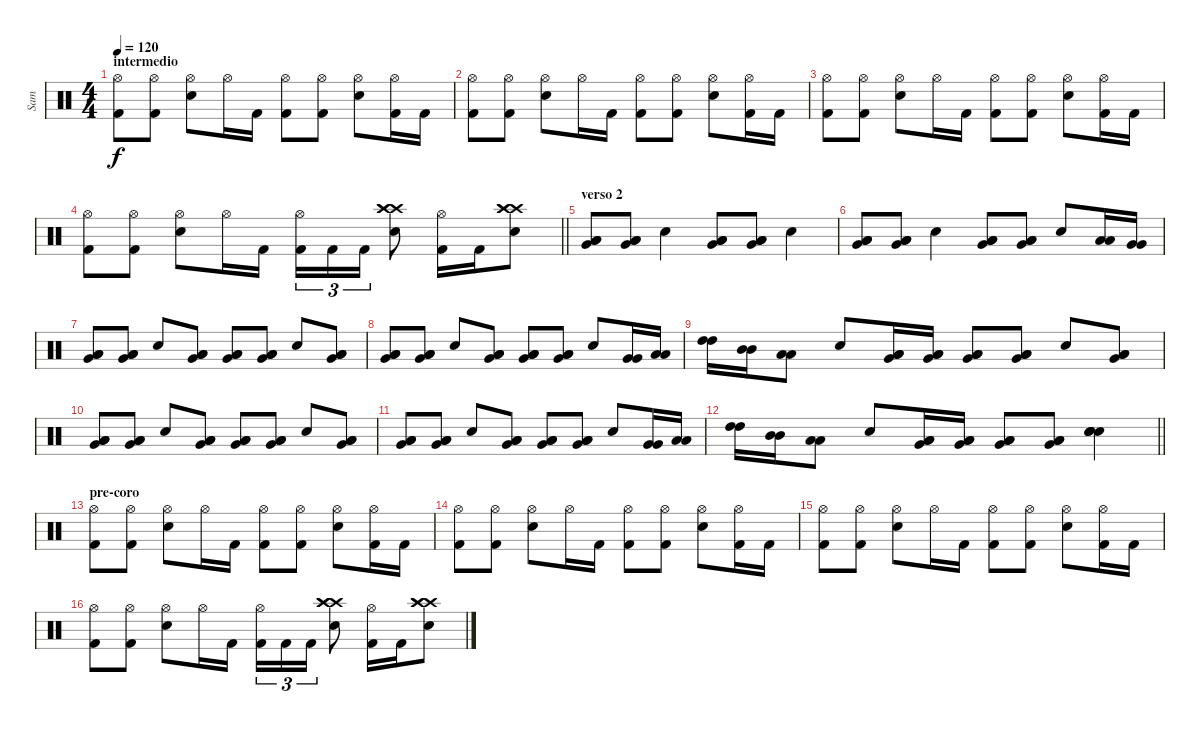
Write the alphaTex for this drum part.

\track ("Sam" "Sam") {instrument percussion}
\staff {score}
\articulation defaults
\ts (4 4)
\section ("" "intermedio")
\tempo 120
\clef neutral
\ks c
("Hi-Hat (open)" "Kick (hit) 2").8{dy f} ("Hi-Hat (open)" "Kick (hit) 2").8 ("Hi-Hat (open)" "Electric Snare (hit)").8 "Hi-Hat (open)".16 "Kick (hit) 2".16 ("Hi-Hat (open)" "Kick (hit) 2").8 ("Hi-Hat (open)" "Kick (hit) 2").8 ("Hi-Hat (open)" "Electric Snare (hit)").8 ("Hi-Hat (open)" "Kick (hit) 2").16 "Kick (hit) 2".16 |
("Hi-Hat (open)" "Kick (hit) 2").8 ("Hi-Hat (open)" "Kick (hit) 2").8 ("Hi-Hat (open)" "Electric Snare (hit)").8 "Hi-Hat (open)".16 "Kick (hit) 2".16 ("Hi-Hat (open)" "Kick (hit) 2").8 ("Hi-Hat (open)" "Kick (hit) 2").8 ("Hi-Hat (open)" "Electric Snare (hit)").8 ("Hi-Hat (open)" "Kick (hit) 2").16 "Kick (hit) 2".16 |
("Hi-Hat (open)" "Kick (hit) 2").8 ("Hi-Hat (open)" "Kick (hit) 2").8 ("Hi-Hat (open)" "Electric Snare (hit)").8 "Hi-Hat (open)".16 "Kick (hit) 2".16 ("Hi-Hat (open)" "Kick (hit) 2").8 ("Hi-Hat (open)" "Kick (hit) 2").8 ("Hi-Hat (open)" "Electric Snare (hit)").8 ("Hi-Hat (open)" "Kick (hit) 2").16 "Kick (hit) 2".16 |
\barLineRight lightlight
("Hi-Hat (open)" "Kick (hit) 2").8 ("Hi-Hat (open)" "Kick (hit) 2").8 ("Hi-Hat (open)" "Electric Snare (hit)").8 "Hi-Hat (open)".16 "Kick (hit) 2".16 ("Hi-Hat (open)" "Kick (hit) 2").16{tu (3 2)} "Kick (hit) 2".16{tu (3 2)} "Kick (hit) 2".16{tu (3 2)} ("Crash high (hit)" "Crash high (hit)" "Crash high (hit)" "Electric Snare (hit)").8 ("Hi-Hat (open)" "Kick (hit) 2").16 "Kick (hit) 2".16 ("Crash high (hit)" "Crash high (hit)" "Crash high (hit)" "Electric Snare (hit)").8 |
\section ("" "verso 2")
("Very Low Tom (hit)" "Low Tom (hit)" "Low Tom (hit)").8 ("Very Low Tom (hit)" "Low Tom (hit)" "Low Tom (hit)").8 "Electric Snare (hit)".4 ("Very Low Tom (hit)" "Low Tom (hit)" "Low Tom (hit)").8 ("Very Low Tom (hit)" "Low Tom (hit)" "Low Tom (hit)").8 "Electric Snare (hit)".4 |
("Very Low Tom (hit)" "Low Tom (hit)" "Low Tom (hit)").8 ("Very Low Tom (hit)" "Low Tom (hit)" "Low Tom (hit)").8 "Electric Snare (hit)".4 ("Very Low Tom (hit)" "Low Tom (hit)" "Low Tom (hit)").8 ("Very Low Tom (hit)" "Low Tom (hit)" "Low Tom (hit)").8 "Electric Snare (hit)".8 ("Low Tom (hit)" "Low Tom (hit)").16 ("Very Low Tom (hit)" "Very Low Tom (hit)").16 |
("Very Low Tom (hit)" "Low Tom (hit)" "Low Tom (hit)").8 ("Very Low Tom (hit)" "Low Tom (hit)" "Low Tom (hit)").8 "Electric Snare (hit)".8 ("Very Low Tom (hit)" "Low Tom (hit)" "Low Tom (hit)").8 ("Very Low Tom (hit)" "Low Tom (hit)" "Low Tom (hit)").8 ("Very Low Tom (hit)" "Low Tom (hit)" "Low Tom (hit)").8 "Electric Snare (hit)".8 ("Very Low Tom (hit)" "Low Tom (hit)" "Low Tom (hit)").8 |
("Very Low Tom (hit)" "Low Tom (hit)" "Low Tom (hit)").8 ("Very Low Tom (hit)" "Low Tom (hit)" "Low Tom (hit)").8 "Electric Snare (hit)".8 ("Very Low Tom (hit)" "Low Tom (hit)" "Low Tom (hit)").8 ("Very Low Tom (hit)" "Low Tom (hit)" "Low Tom (hit)").8 ("Very Low Tom (hit)" "Low Tom (hit)" "Low Tom (hit)").8 "Electric Snare (hit)".8 ("Very Low Tom (hit)" "Very Low Tom (hit)").16 ("Low Tom (hit)" "Low Tom (hit)").16 |
("High Tom (hit)" "High Tom (hit)").16 ("Mid Tom (hit)" "Mid Tom (hit)").16 ("Low Tom (hit)" "Low Tom (hit)").8 "Electric Snare (hit)".8 ("Very Low Tom (hit)" "Low Tom (hit)" "Low Tom (hit)").16 ("Very Low Tom (hit)" "Low Tom (hit)" "Low Tom (hit)").16 ("Very Low Tom (hit)" "Low Tom (hit)" "Low Tom (hit)").8 ("Very Low Tom (hit)" "Low Tom (hit)" "Low Tom (hit)").8 "Electric Snare (hit)".8 ("Very Low Tom (hit)" "Low Tom (hit)" "Low Tom (hit)").8 |
("Very Low Tom (hit)" "Low Tom (hit)" "Low Tom (hit)").8 ("Very Low Tom (hit)" "Low Tom (hit)" "Low Tom (hit)").8 "Electric Snare (hit)".8 ("Very Low Tom (hit)" "Low Tom (hit)" "Low Tom (hit)").8 ("Very Low Tom (hit)" "Low Tom (hit)" "Low Tom (hit)").8 ("Very Low Tom (hit)" "Low Tom (hit)" "Low Tom (hit)").8 "Electric Snare (hit)".8 ("Very Low Tom (hit)" "Low Tom (hit)" "Low Tom (hit)").8 |
("Very Low Tom (hit)" "Low Tom (hit)" "Low Tom (hit)").8 ("Very Low Tom (hit)" "Low Tom (hit)" "Low Tom (hit)").8 "Electric Snare (hit)".8 ("Very Low Tom (hit)" "Low Tom (hit)" "Low Tom (hit)").8 ("Very Low Tom (hit)" "Low Tom (hit)" "Low Tom (hit)").8 ("Very Low Tom (hit)" "Low Tom (hit)" "Low Tom (hit)").8 "Electric Snare (hit)".8 ("Very Low Tom (hit)" "Very Low Tom (hit)").16 ("Low Tom (hit)" "Low Tom (hit)").16 |
\barLineRight lightlight
("High Tom (hit)" "High Tom (hit)").16 ("Mid Tom (hit)" "Mid Tom (hit)").16 ("Low Tom (hit)" "Low Tom (hit)").8 "Electric Snare (hit)".8 ("Very Low Tom (hit)" "Low Tom (hit)" "Low Tom (hit)").16 ("Very Low Tom (hit)" "Low Tom (hit)" "Low Tom (hit)").16 ("Very Low Tom (hit)" "Low Tom (hit)" "Low Tom (hit)").8 ("Very Low Tom (hit)" "Low Tom (hit)" "Low Tom (hit)").8 ("Electric Snare (hit)" "Electric Snare (hit)" "Electric Snare (hit)" "Electric Snare (hit)").4 |
\section ("" "pre-coro")
("Hi-Hat (open)" "Kick (hit) 2").8 ("Hi-Hat (open)" "Kick (hit) 2").8 ("Hi-Hat (open)" "Electric Snare (hit)").8 "Hi-Hat (open)".16 "Kick (hit) 2".16 ("Hi-Hat (open)" "Kick (hit) 2").8 ("Hi-Hat (open)" "Kick (hit) 2").8 ("Hi-Hat (open)" "Electric Snare (hit)").8 ("Hi-Hat (open)" "Kick (hit) 2").16 "Kick (hit) 2".16 |
("Hi-Hat (open)" "Kick (hit) 2").8 ("Hi-Hat (open)" "Kick (hit) 2").8 ("Hi-Hat (open)" "Electric Snare (hit)").8 "Hi-Hat (open)".16 "Kick (hit) 2".16 ("Hi-Hat (open)" "Kick (hit) 2").8 ("Hi-Hat (open)" "Kick (hit) 2").8 ("Hi-Hat (open)" "Electric Snare (hit)").8 ("Hi-Hat (open)" "Kick (hit) 2").16 "Kick (hit) 2".16 |
("Hi-Hat (open)" "Kick (hit) 2").8 ("Hi-Hat (open)" "Kick (hit) 2").8 ("Hi-Hat (open)" "Electric Snare (hit)").8 "Hi-Hat (open)".16 "Kick (hit) 2".16 ("Hi-Hat (open)" "Kick (hit) 2").8 ("Hi-Hat (open)" "Kick (hit) 2").8 ("Hi-Hat (open)" "Electric Snare (hit)").8 ("Hi-Hat (open)" "Kick (hit) 2").16 "Kick (hit) 2".16 |
("Hi-Hat (open)" "Kick (hit) 2").8 ("Hi-Hat (open)" "Kick (hit) 2").8 ("Hi-Hat (open)" "Electric Snare (hit)").8 "Hi-Hat (open)".16 "Kick (hit) 2".16 ("Hi-Hat (open)" "Kick (hit) 2").16{tu (3 2)} "Kick (hit) 2".16{tu (3 2)} "Kick (hit) 2".16{tu (3 2)} ("Crash high (hit)" "Crash high (hit)" "Crash high (hit)" "Electric Snare (hit)").8 ("Hi-Hat (open)" "Kick (hit) 2").16 "Kick (hit) 2".16 ("Crash high (hit)" "Crash high (hit)" "Crash high (hit)" "Electric Snare (hit)").8
